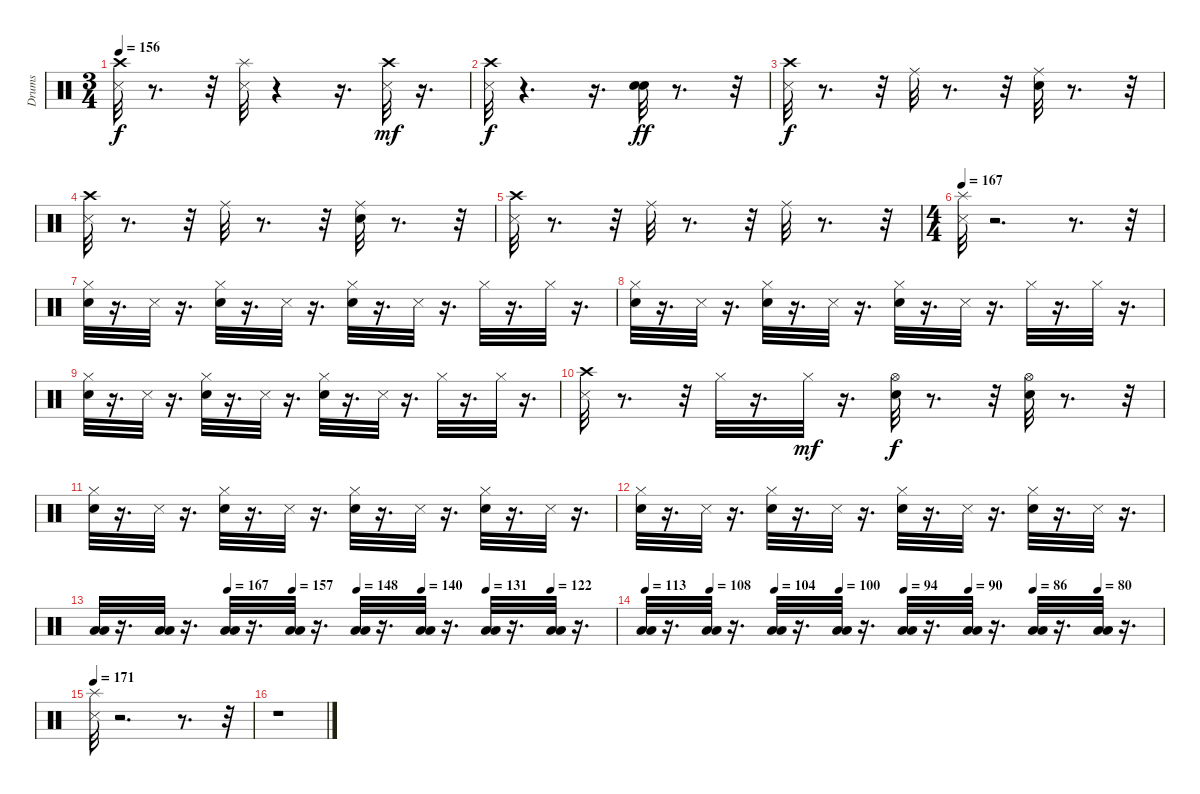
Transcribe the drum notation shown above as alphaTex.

\track ("Drums" "Drums") {instrument percussion}
\staff {score}
\articulation defaults
\ts (3 4)
\tempo 156
\clef neutral
\ks c
("Metronome (hit)" "Crash high (hit)").32{dy f} r.8{d} r.32 ("Splash (hit)" "Metronome (hit)").32 r.4 r.16{d} ("Crash high (hit)" "Metronome (hit)").32{dy mf} r.16{d} |
("Metronome (hit)" "Crash high (hit)").32{dy f} r.4{d} r.16{d} ("Snare (hit) 2" "Electric Snare (hit)").32{dy ff} r.8{d} r.32 |
("Crash high (hit)" "Metronome (hit)").32{dy f} r.8{d} r.32 "Ride (middle)".32 r.8{d} r.32 ("Ride (middle)" "Snare (hit) 2").32 r.8{d} r.32 |
("Crash high (hit)" "Metronome (hit)").32 r.8{d} r.32 "Ride (middle)".32 r.8{d} r.32 ("Snare (hit) 2" "Ride (middle)").32 r.8{d} r.32 |
("Crash high (hit)" "Metronome (hit)").32 r.8{d} r.32 "Ride (middle)".32 r.8{d} r.32 "Ride (middle)".32 r.8{d} r.32 |
\ts (4 4)
\tempo 167
("Splash (hit)" "Metronome (hit)").32 r.2{d} r.8{d} r.32 |
("Hi-Hat (closed)" "Snare (hit) 2").32 r.16{d} "Metronome (hit)".32 r.16{d} ("Snare (hit) 2" "Hi-Hat (closed)").32 r.16{d} "Metronome (hit)".32 r.16{d} ("Snare (hit) 2" "Hi-Hat (closed)").32 r.16{d} "Metronome (hit)".32 r.16{d} "Hi-Hat (closed)".32 r.16{d} "Hi-Hat (closed)".32 r.16{d} |
("Hi-Hat (closed)" "Snare (hit) 2").32 r.16{d} "Metronome (hit)".32 r.16{d} ("Snare (hit) 2" "Hi-Hat (closed)").32 r.16{d} "Metronome (hit)".32 r.16{d} ("Snare (hit) 2" "Hi-Hat (closed)").32 r.16{d} "Metronome (hit)".32 r.16{d} "Hi-Hat (closed)".32 r.16{d} "Hi-Hat (closed)".32 r.16{d} |
("Hi-Hat (closed)" "Snare (hit) 2").32 r.16{d} "Metronome (hit)".32 r.16{d} ("Snare (hit) 2" "Hi-Hat (closed)").32 r.16{d} "Metronome (hit)".32 r.16{d} ("Snare (hit) 2" "Hi-Hat (closed)").32 r.16{d} "Metronome (hit)".32 r.16{d} "Hi-Hat (closed)".32 r.16{d} "Hi-Hat (closed)".32 r.16{d} |
("Metronome (hit)" "Crash high (hit)").32 r.8{d} r.32 "Hi-Hat (closed)".32 r.16{d} "Hi-Hat (closed)".32{dy mf} r.16{d} ("Hi-Hat (open)" "Snare (hit) 2").32{dy f} r.8{d} r.32 ("Hi-Hat (open)" "Snare (hit) 2").32 r.8{d} r.32 |
("Hi-Hat (closed)" "Snare (hit) 2").32 r.16{d} "Metronome (hit)".32 r.16{d} ("Snare (hit) 2" "Hi-Hat (closed)").32 r.16{d} "Metronome (hit)".32 r.16{d} ("Snare (hit) 2" "Hi-Hat (closed)").32 r.16{d} "Metronome (hit)".32 r.16{d} ("Snare (hit) 2" "Hi-Hat (closed)").32 r.16{d} "Metronome (hit)".32 r.16{d} |
("Hi-Hat (closed)" "Snare (hit) 2").32 r.16{d} "Metronome (hit)".32 r.16{d} ("Snare (hit) 2" "Hi-Hat (closed)").32 r.16{d} "Metronome (hit)".32 r.16{d} ("Snare (hit) 2" "Hi-Hat (closed)").32 r.16{d} "Metronome (hit)".32 r.16{d} ("Snare (hit) 2" "Hi-Hat (closed)").32 r.16{d} "Metronome (hit)".32 r.16{d} |
\tempo (167 0.25)
\tempo (157 0.375)
\tempo (148 0.5)
\tempo (140 0.625)
\tempo (131 0.75)
\tempo (122 0.875)
("Low Floor Tom (hit)" "Low Tom (hit)").32 r.16{d} ("Low Floor Tom (hit)" "Low Tom (hit)").32 r.16{d} ("Low Floor Tom (hit)" "Low Tom (hit)").32 r.16{d} ("Low Floor Tom (hit)" "Low Tom (hit)").32 r.16{d} ("Low Floor Tom (hit)" "Low Tom (hit)").32 r.16{d} ("Low Floor Tom (hit)" "Low Tom (hit)").32 r.16{d} ("Low Floor Tom (hit)" "Low Tom (hit)").32 r.16{d} ("Low Floor Tom (hit)" "Low Tom (hit)").32 r.16{d} |
\tempo 113
\tempo (108 0.125)
\tempo (104 0.25)
\tempo (100 0.375)
\tempo (94 0.5)
\tempo (90 0.625)
\tempo (86 0.75)
\tempo (80 0.875)
("Low Floor Tom (hit)" "Low Tom (hit)").32 r.16{d} ("Low Floor Tom (hit)" "Low Tom (hit)").32 r.16{d} ("Low Floor Tom (hit)" "Low Tom (hit)").32 r.16{d} ("Low Floor Tom (hit)" "Low Tom (hit)").32 r.16{d} ("Low Floor Tom (hit)" "Low Tom (hit)").32 r.16{d} ("Low Floor Tom (hit)" "Low Tom (hit)").32 r.16{d} ("Low Floor Tom (hit)" "Low Tom (hit)").32 r.16{d} ("Low Floor Tom (hit)" "Low Tom (hit)").32 r.16{d} |
\tempo 171
("Metronome (hit)" "Splash (hit)").32 r.2{d} r.8{d} r.32 |
r.1
